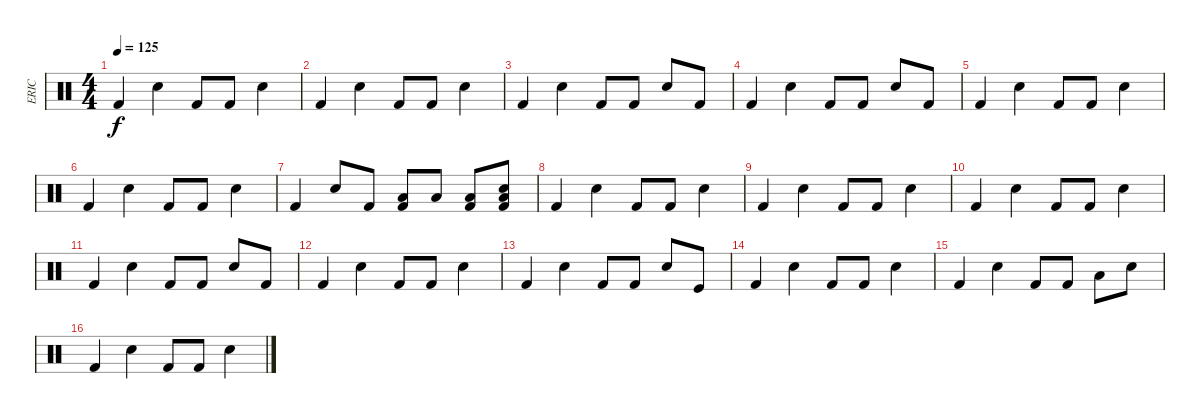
\track ("ERIC" "ERIC") {instrument percussion}
\staff {score}
\articulation defaults
\ts (4 4)
\tempo 125
\clef neutral
\ks c "Kick (hit) 2".4{dy f} "Electric Snare (hit)".4 "Kick (hit) 2".8 "Kick (hit) 2".8 "Electric Snare (hit)".4
|
"Kick (hit) 2".4 "Electric Snare (hit)".4 "Kick (hit) 2".8 "Kick (hit) 2".8 "Electric Snare (hit)".4 |
"Kick (hit) 2".4 "Electric Snare (hit)".4 "Kick (hit) 2".8 "Kick (hit) 2".8 "Electric Snare (hit)".8 "Kick (hit) 2".8 |
"Kick (hit) 2".4 "Electric Snare (hit)".4 "Kick (hit) 2".8 "Kick (hit) 2".8 "Electric Snare (hit)".8 "Kick (hit) 2".8 |
"Kick (hit) 2".4 "Electric Snare (hit)".4 "Kick (hit) 2".8 "Kick (hit) 2".8 "Electric Snare (hit)".4 |
"Kick (hit) 2".4 "Electric Snare (hit)".4 "Kick (hit) 2".8 "Kick (hit) 2".8 "Electric Snare (hit)".4 |
"Kick (hit) 2".4 "Electric Snare (hit)".8 "Kick (hit) 2".8 ("Low Floor Tom (hit)" "Kick (hit) 2").8 "Low Floor Tom (hit)".8 ("Low Floor Tom (hit)" "Kick (hit) 2").8 ("Electric Snare (hit)" "Low Floor Tom (hit)" "Kick (hit) 2").8 |
"Kick (hit) 2".4 "Electric Snare (hit)".4 "Kick (hit) 2".8 "Kick (hit) 2".8 "Electric Snare (hit)".4 |
"Kick (hit) 2".4 "Electric Snare (hit)".4 "Kick (hit) 2".8 "Kick (hit) 2".8 "Electric Snare (hit)".4 |
"Kick (hit) 2".4 "Electric Snare (hit)".4 "Kick (hit) 2".8 "Kick (hit) 2".8 "Electric Snare (hit)".4 |
"Kick (hit) 2".4 "Electric Snare (hit)".4 "Kick (hit) 2".8 "Kick (hit) 2".8 "Electric Snare (hit)".8 "Kick (hit) 2".8 |
"Kick (hit) 2".4 "Electric Snare (hit)".4 "Kick (hit) 2".8 "Kick (hit) 2".8 "Electric Snare (hit)".4 |
"Kick (hit) 2".4 "Electric Snare (hit)".4 "Kick (hit) 2".8 "Kick (hit) 2".8 "Electric Snare (hit)".8 "Kick (hit)".8 |
"Kick (hit) 2".4 "Electric Snare (hit)".4 "Kick (hit) 2".8 "Kick (hit) 2".8 "Electric Snare (hit)".4 |
"Kick (hit) 2".4 "Electric Snare (hit)".4 "Kick (hit) 2".8 "Kick (hit) 2".8 "Low Floor Tom (hit)".8 "Electric Snare (hit)".8 |
"Kick (hit) 2".4 "Electric Snare (hit)".4 "Kick (hit) 2".8 "Kick (hit) 2".8 "Electric Snare (hit)".4
